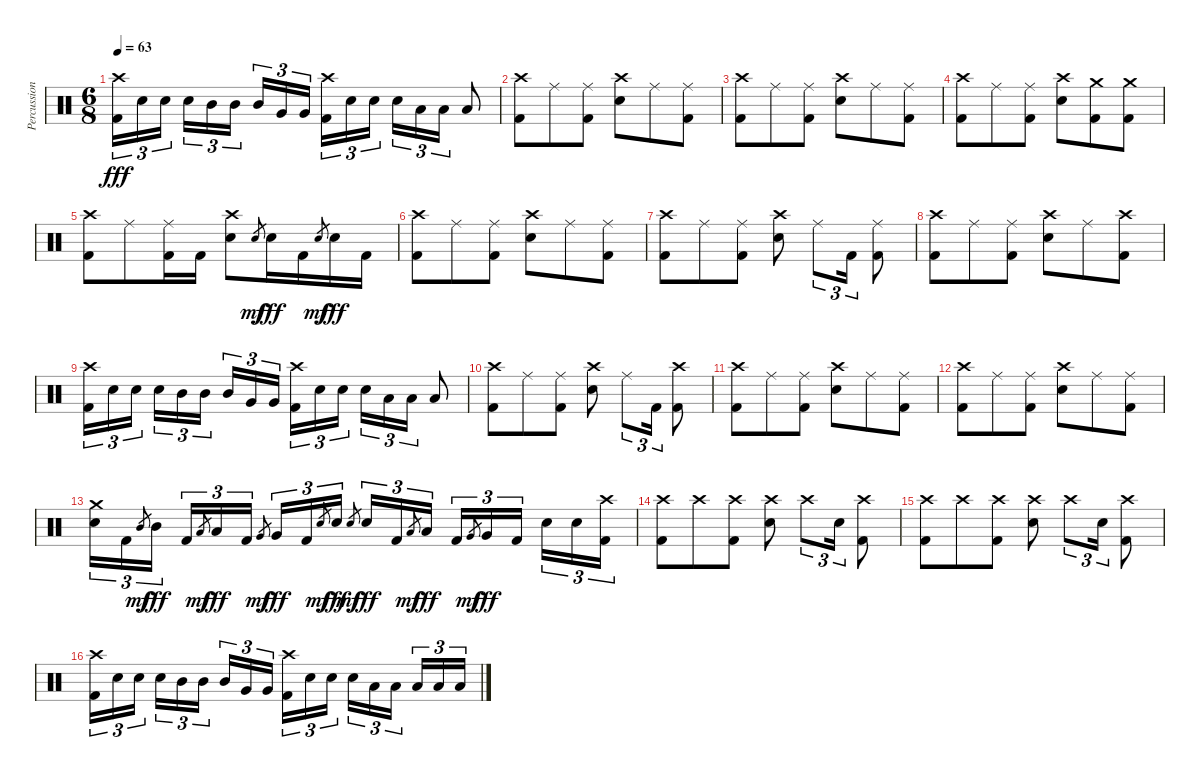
\track ("Percussion" "Percussion") {instrument percussion}
\staff {score}
\articulation defaults
\ts (6 8)
\tempo 63
\clef neutral
\ks c
("Crash high (hit)" "Kick (hit) 2").16{tu (3 2) dy fff} "Electric Snare (hit)".16{tu (3 2)} "Electric Snare (hit)".16{tu (3 2) beam splitsecondary} "Electric Snare (hit)".16{tu (3 2)} "Mid Tom (hit)".16{tu (3 2)} "Mid Tom (hit)".16{tu (3 2) beam splitsecondary} "Mid Tom (hit)".16{tu (3 2)} "Very Low Tom (hit)".16{tu (3 2)} "Very Low Tom (hit)".16{tu (3 2)} ("Crash high (hit)" "Kick (hit) 2").16{tu (3 2)} "Electric Snare (hit)".16{tu (3 2)} "Electric Snare (hit)".16{tu (3 2) beam splitsecondary} "Electric Snare (hit)".16{tu (3 2)} "Low Tom (hit)".16{tu (3 2)} "Low Tom (hit)".16{tu (3 2)} "Low Tom (hit)".8 |
("Crash high (hit)" "Kick (hit) 2").8 "Ride (middle)".8 ("Ride (middle)" "Kick (hit) 2").8 ("Crash high (hit)" "Electric Snare (hit)").8 "Ride (middle)".8 ("Ride (middle)" "Kick (hit) 2").8 |
("Crash high (hit)" "Kick (hit) 2").8 "Ride (middle)".8 ("Ride (middle)" "Kick (hit) 2").8 ("Crash high (hit)" "Electric Snare (hit)").8 "Ride (middle)".8 ("Ride (middle)" "Kick (hit) 2").8 |
("Crash high (hit)" "Kick (hit) 2").8 "Ride (middle)".8 ("Ride (middle)" "Kick (hit) 2").8 ("Crash high (hit)" "Electric Snare (hit)").8 ("Crash medium (hit)" "Kick (hit) 2").8 ("Crash medium (hit)" "Kick (hit) 2").8 |
("Crash high (hit)" "Kick (hit) 2").8 "Ride (middle)".8 ("Ride (middle)" "Kick (hit) 2").16 "Kick (hit) 2".16 ("Crash high (hit)" "Electric Snare (hit)").8 "Electric Snare (hit)".8{gr dy mf} "Electric Snare (hit)".16{dy fff} "Kick (hit) 2".16 "Electric Snare (hit)".8{gr dy mf} "Electric Snare (hit)".16{dy fff} "Kick (hit) 2".16 |
("Crash high (hit)" "Kick (hit) 2").8 "Ride (middle)".8 ("Ride (middle)" "Kick (hit) 2").8 ("Crash high (hit)" "Electric Snare (hit)").8 "Ride (middle)".8 ("Ride (middle)" "Kick (hit) 2").8 |
("Crash high (hit)" "Kick (hit) 2").8 "Ride (middle)".8 ("Ride (middle)" "Kick (hit) 2").8 ("Crash high (hit)" "Electric Snare (hit)").8 "Ride (middle)".8{tu (3 2)} "Kick (hit) 2".16{tu (3 2)} ("Ride (middle)" "Kick (hit) 2").8 |
("Crash high (hit)" "Kick (hit) 2").8 "Ride (middle)".8 ("Ride (middle)" "Kick (hit) 2").8 ("Crash high (hit)" "Electric Snare (hit)").8 "Ride (middle)".8 ("Crash high (hit)" "Kick (hit) 2").8 |
("Crash high (hit)" "Kick (hit) 2").16{tu (3 2)} "Electric Snare (hit)".16{tu (3 2)} "Electric Snare (hit)".16{tu (3 2) beam splitsecondary} "Electric Snare (hit)".16{tu (3 2)} "Mid Tom (hit)".16{tu (3 2)} "Mid Tom (hit)".16{tu (3 2) beam splitsecondary} "Mid Tom (hit)".16{tu (3 2)} "Very Low Tom (hit)".16{tu (3 2)} "Very Low Tom (hit)".16{tu (3 2)} ("Crash high (hit)" "Kick (hit) 2").16{tu (3 2)} "Electric Snare (hit)".16{tu (3 2)} "Electric Snare (hit)".16{tu (3 2) beam splitsecondary} "Electric Snare (hit)".16{tu (3 2)} "Low Tom (hit)".16{tu (3 2)} "Low Tom (hit)".16{tu (3 2)} "Low Tom (hit)".8 |
("Crash high (hit)" "Kick (hit) 2").8 "Ride (middle)".8 ("Ride (middle)" "Kick (hit) 2").8 ("Crash high (hit)" "Electric Snare (hit)").8 "Ride (middle)".8{tu (3 2)} "Kick (hit) 2".16{tu (3 2)} ("Crash high (hit)" "Kick (hit) 2").8 |
("Crash high (hit)" "Kick (hit) 2").8 "Ride (middle)".8 ("Ride (middle)" "Kick (hit) 2").8 ("Crash high (hit)" "Electric Snare (hit)").8 "Ride (middle)".8 ("Ride (middle)" "Kick (hit) 2").8 |
("Crash high (hit)" "Kick (hit) 2").8 "Ride (middle)".8 ("Ride (middle)" "Kick (hit) 2").8 ("Crash high (hit)" "Electric Snare (hit)").8 "Ride (middle)".8 ("Ride (middle)" "Kick (hit) 2").8 |
("Crash medium (hit)" "Electric Snare (hit)").16{tu (3 2)} "Kick (hit) 2".16{tu (3 2)} "Mid Tom (hit)".8{gr dy mf} "Mid Tom (hit)".16{tu (3 2) dy fff beam splitsecondary} "Kick (hit) 2".16{tu (3 2)} "Low Tom (hit)".8{gr dy mf} "Low Tom (hit)".16{tu (3 2) dy fff} "Kick (hit) 2".16{tu (3 2)} "Very Low Tom (hit)".8{gr dy mf beam splitsecondary} "Very Low Tom (hit)".16{tu (3 2) dy fff} "Kick (hit) 2".16{tu (3 2)} "Electric Snare (hit)".8{gr dy mf} "Electric Snare (hit)".16{tu (3 2) dy fff} "Electric Snare (hit)".8{gr dy mf} "Electric Snare (hit)".16{tu (3 2) dy fff} "Kick (hit) 2".16{tu (3 2)} "Low Tom (hit)".8{gr dy mf} "Low Tom (hit)".16{tu (3 2) dy fff beam splitsecondary} "Kick (hit) 2".16{tu (3 2)} "Very Low Tom (hit)".8{gr dy mf} "Very Low Tom (hit)".16{tu (3 2) dy fff} "Kick (hit) 2".16{tu (3 2) beam splitsecondary} "Electric Snare (hit)".16{tu (3 2)} "Electric Snare (hit)".16{tu (3 2)} ("Crash high (hit)" "Kick (hit) 2").16{tu (3 2)} |
("Crash high (hit)" "Kick (hit) 2").8 "Crash high (hit)".8 ("Crash high (hit)" "Kick (hit) 2").8 ("Crash high (hit)" "Electric Snare (hit)").8 "Crash high (hit)".8{tu (3 2)} "Electric Snare (hit)".16{tu (3 2)} ("Crash high (hit)" "Kick (hit) 2").8 |
("Crash high (hit)" "Kick (hit) 2").8 "Crash high (hit)".8 ("Crash high (hit)" "Kick (hit) 2").8 ("Crash high (hit)" "Electric Snare (hit)").8 "Crash high (hit)".8{tu (3 2)} "Electric Snare (hit)".16{tu (3 2)} ("Crash high (hit)" "Kick (hit) 2").8 |
("Crash high (hit)" "Kick (hit) 2").16{tu (3 2)} "Electric Snare (hit)".16{tu (3 2)} "Electric Snare (hit)".16{tu (3 2) beam splitsecondary} "Electric Snare (hit)".16{tu (3 2)} "Mid Tom (hit)".16{tu (3 2)} "Mid Tom (hit)".16{tu (3 2) beam splitsecondary} "Mid Tom (hit)".16{tu (3 2)} "Very Low Tom (hit)".16{tu (3 2)} "Very Low Tom (hit)".16{tu (3 2)} ("Crash high (hit)" "Kick (hit) 2").16{tu (3 2)} "Electric Snare (hit)".16{tu (3 2)} "Electric Snare (hit)".16{tu (3 2) beam splitsecondary} "Electric Snare (hit)".16{tu (3 2)} "Low Tom (hit)".16{tu (3 2)} "Low Tom (hit)".16{tu (3 2) beam splitsecondary} "Low Tom (hit)".16{tu (3 2)} "Low Floor Tom (hit)".16{tu (3 2)} "Low Floor Tom (hit)".16{tu (3 2)}
